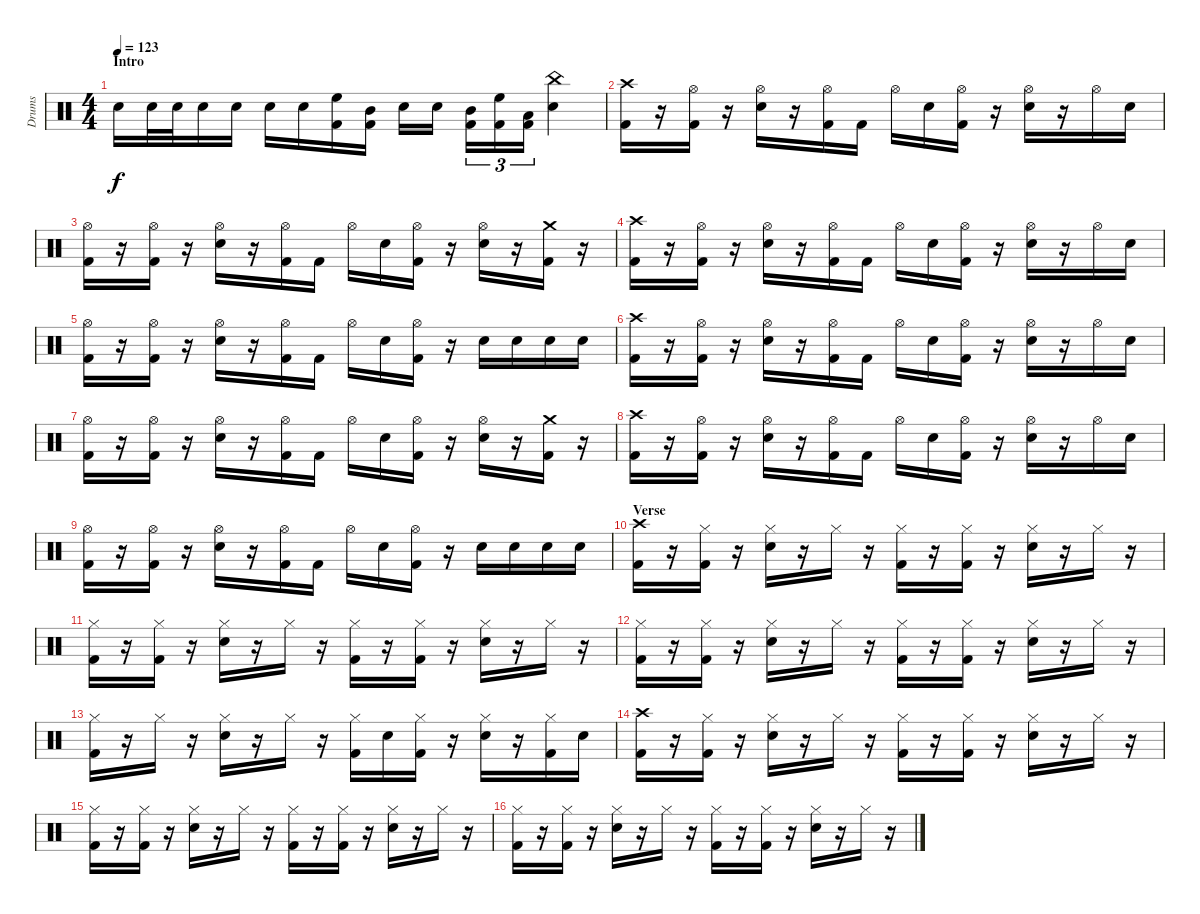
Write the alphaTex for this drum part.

\track ("Drums" "Drums") {instrument percussion}
\staff {score}
\articulation defaults
\ts (4 4)
\section ("" "Intro")
\tempo 123
\clef neutral
\ks c "Electric Snare (hit)".16{dy f} "Electric Snare (hit)".32 "Electric Snare (hit)".32 "Electric Snare (hit)".16 "Electric Snare (hit)".16 "Electric Snare (hit)".16 "Electric Snare (hit)".16
("High Floor Tom (hit)" "Kick (hit) 2").16 ("Mid Tom (hit)" "Kick (hit) 2").16 "Electric Snare (hit)".16 "Electric Snare (hit)".16 ("Mid Tom (hit)" "Kick (hit) 2").16{tu (3 2)} ("High Floor Tom (hit)" "Kick (hit) 2").16{tu (3 2)} ("Low Tom (hit)" "Kick (hit) 2").16{tu (3 2)} ("China (hit)" "Electric Snare (hit)").4 |
("Crash high (hit)" "Kick (hit) 2").16 r.16 ("Hi-Hat (open)" "Kick (hit) 2").16 r.16 ("Hi-Hat (open)" "Electric Snare (hit)").16 r.16 ("Hi-Hat (open)" "Kick (hit) 2").16 "Kick (hit) 2".16 "Hi-Hat (open)".16 "Electric Snare (hit)".16 ("Hi-Hat (open)" "Kick (hit) 2").16 r.16 ("Hi-Hat (open)" "Electric Snare (hit)").16 r.16 "Hi-Hat (open)".16 "Electric Snare (hit)".16 |
("Hi-Hat (open)" "Kick (hit) 2").16 r.16 ("Hi-Hat (open)" "Kick (hit) 2").16 r.16 ("Hi-Hat (open)" "Electric Snare (hit)").16 r.16 ("Hi-Hat (open)" "Kick (hit) 2").16 "Kick (hit) 2".16 "Hi-Hat (open)".16 "Electric Snare (hit)".16 ("Hi-Hat (open)" "Kick (hit) 2").16 r.16 ("Hi-Hat (open)" "Electric Snare (hit)").16 r.16 ("Crash medium (hit)" "Kick (hit) 2").16 r.16 |
("Crash high (hit)" "Kick (hit) 2").16 r.16 ("Hi-Hat (open)" "Kick (hit) 2").16 r.16 ("Hi-Hat (open)" "Electric Snare (hit)").16 r.16 ("Hi-Hat (open)" "Kick (hit) 2").16 "Kick (hit) 2".16 "Hi-Hat (open)".16 "Electric Snare (hit)".16 ("Hi-Hat (open)" "Kick (hit) 2").16 r.16 ("Hi-Hat (open)" "Electric Snare (hit)").16 r.16 "Hi-Hat (open)".16 "Electric Snare (hit)".16 |
("Hi-Hat (open)" "Kick (hit) 2").16 r.16 ("Hi-Hat (open)" "Kick (hit) 2").16 r.16 ("Hi-Hat (open)" "Electric Snare (hit)").16 r.16 ("Hi-Hat (open)" "Kick (hit) 2").16 "Kick (hit) 2".16 "Hi-Hat (open)".16 "Electric Snare (hit)".16 ("Hi-Hat (open)" "Kick (hit) 2").16 r.16 "Electric Snare (hit)".16 "Electric Snare (hit)".16 "Electric Snare (hit)".16 "Electric Snare (hit)".16 |
("Crash high (hit)" "Kick (hit) 2").16 r.16 ("Hi-Hat (open)" "Kick (hit) 2").16 r.16 ("Hi-Hat (open)" "Electric Snare (hit)").16 r.16 ("Hi-Hat (open)" "Kick (hit) 2").16 "Kick (hit) 2".16 "Hi-Hat (open)".16 "Electric Snare (hit)".16 ("Hi-Hat (open)" "Kick (hit) 2").16 r.16 ("Hi-Hat (open)" "Electric Snare (hit)").16 r.16 "Hi-Hat (open)".16 "Electric Snare (hit)".16 |
("Hi-Hat (open)" "Kick (hit) 2").16 r.16 ("Hi-Hat (open)" "Kick (hit) 2").16 r.16 ("Hi-Hat (open)" "Electric Snare (hit)").16 r.16 ("Hi-Hat (open)" "Kick (hit) 2").16 "Kick (hit) 2".16 "Hi-Hat (open)".16 "Electric Snare (hit)".16 ("Hi-Hat (open)" "Kick (hit) 2").16 r.16 ("Hi-Hat (open)" "Electric Snare (hit)").16 r.16 ("Crash medium (hit)" "Kick (hit) 2").16 r.16 |
("Crash high (hit)" "Kick (hit) 2").16 r.16 ("Hi-Hat (open)" "Kick (hit) 2").16 r.16 ("Hi-Hat (open)" "Electric Snare (hit)").16 r.16 ("Hi-Hat (open)" "Kick (hit) 2").16 "Kick (hit) 2".16 "Hi-Hat (open)".16 "Electric Snare (hit)".16 ("Hi-Hat (open)" "Kick (hit) 2").16 r.16 ("Hi-Hat (open)" "Electric Snare (hit)").16 r.16 "Hi-Hat (open)".16 "Electric Snare (hit)".16 |
("Hi-Hat (open)" "Kick (hit) 2").16 r.16 ("Hi-Hat (open)" "Kick (hit) 2").16 r.16 ("Hi-Hat (open)" "Electric Snare (hit)").16 r.16 ("Hi-Hat (open)" "Kick (hit) 2").16 "Kick (hit) 2".16 "Hi-Hat (open)".16 "Electric Snare (hit)".16 ("Hi-Hat (open)" "Kick (hit) 2").16 r.16 "Electric Snare (hit)".16 "Electric Snare (hit)".16 "Electric Snare (hit)".16 "Electric Snare (hit)".16 |
\section ("" "Verse")
("Crash high (hit)" "Kick (hit) 2").16 r.16 ("Hi-Hat (closed)" "Kick (hit) 2").16 r.16 ("Hi-Hat (closed)" "Electric Snare (hit)").16 r.16 "Hi-Hat (closed)".16 r.16 ("Hi-Hat (closed)" "Kick (hit) 2").16 r.16 ("Hi-Hat (closed)" "Kick (hit) 2").16 r.16 ("Hi-Hat (closed)" "Electric Snare (hit)").16 r.16 "Hi-Hat (closed)".16 r.16 |
("Hi-Hat (closed)" "Kick (hit) 2").16 r.16 ("Hi-Hat (closed)" "Kick (hit) 2").16 r.16 ("Hi-Hat (closed)" "Electric Snare (hit)").16 r.16 "Hi-Hat (closed)".16 r.16 ("Hi-Hat (closed)" "Kick (hit) 2").16 r.16 ("Hi-Hat (closed)" "Kick (hit) 2").16 r.16 ("Hi-Hat (closed)" "Electric Snare (hit)").16 r.16 "Hi-Hat (closed)".16 r.16 |
("Hi-Hat (closed)" "Kick (hit) 2").16 r.16 ("Hi-Hat (closed)" "Kick (hit) 2").16 r.16 ("Hi-Hat (closed)" "Electric Snare (hit)").16 r.16 "Hi-Hat (closed)".16 r.16 ("Hi-Hat (closed)" "Kick (hit) 2").16 r.16 ("Hi-Hat (closed)" "Kick (hit) 2").16 r.16 ("Hi-Hat (closed)" "Electric Snare (hit)").16 r.16 "Hi-Hat (closed)".16 r.16 |
("Hi-Hat (closed)" "Kick (hit) 2").16 r.16 "Hi-Hat (closed)".16 r.16 ("Hi-Hat (closed)" "Electric Snare (hit)").16 r.16 "Hi-Hat (closed)".16 r.16 ("Hi-Hat (closed)" "Kick (hit) 2").16 "Electric Snare (hit)".16 ("Hi-Hat (closed)" "Kick (hit) 2").16 r.16 ("Hi-Hat (closed)" "Electric Snare (hit)").16 r.16 ("Hi-Hat (closed)" "Kick (hit) 2").16 "Electric Snare (hit)".16 |
("Crash high (hit)" "Kick (hit) 2").16 r.16 ("Hi-Hat (closed)" "Kick (hit) 2").16 r.16 ("Hi-Hat (closed)" "Electric Snare (hit)").16 r.16 "Hi-Hat (closed)".16 r.16 ("Hi-Hat (closed)" "Kick (hit) 2").16 r.16 ("Hi-Hat (closed)" "Kick (hit) 2").16 r.16 ("Hi-Hat (closed)" "Electric Snare (hit)").16 r.16 "Hi-Hat (closed)".16 r.16 |
("Hi-Hat (closed)" "Kick (hit) 2").16 r.16 ("Hi-Hat (closed)" "Kick (hit) 2").16 r.16 ("Hi-Hat (closed)" "Electric Snare (hit)").16 r.16 "Hi-Hat (closed)".16 r.16 ("Hi-Hat (closed)" "Kick (hit) 2").16 r.16 ("Hi-Hat (closed)" "Kick (hit) 2").16 r.16 ("Hi-Hat (closed)" "Electric Snare (hit)").16 r.16 "Hi-Hat (closed)".16 r.16 |
("Hi-Hat (closed)" "Kick (hit) 2").16 r.16 ("Hi-Hat (closed)" "Kick (hit) 2").16 r.16 ("Hi-Hat (closed)" "Electric Snare (hit)").16 r.16 "Hi-Hat (closed)".16 r.16 ("Hi-Hat (closed)" "Kick (hit) 2").16 r.16 ("Hi-Hat (closed)" "Kick (hit) 2").16 r.16 ("Hi-Hat (closed)" "Electric Snare (hit)").16 r.16 "Hi-Hat (closed)".16 r.16
